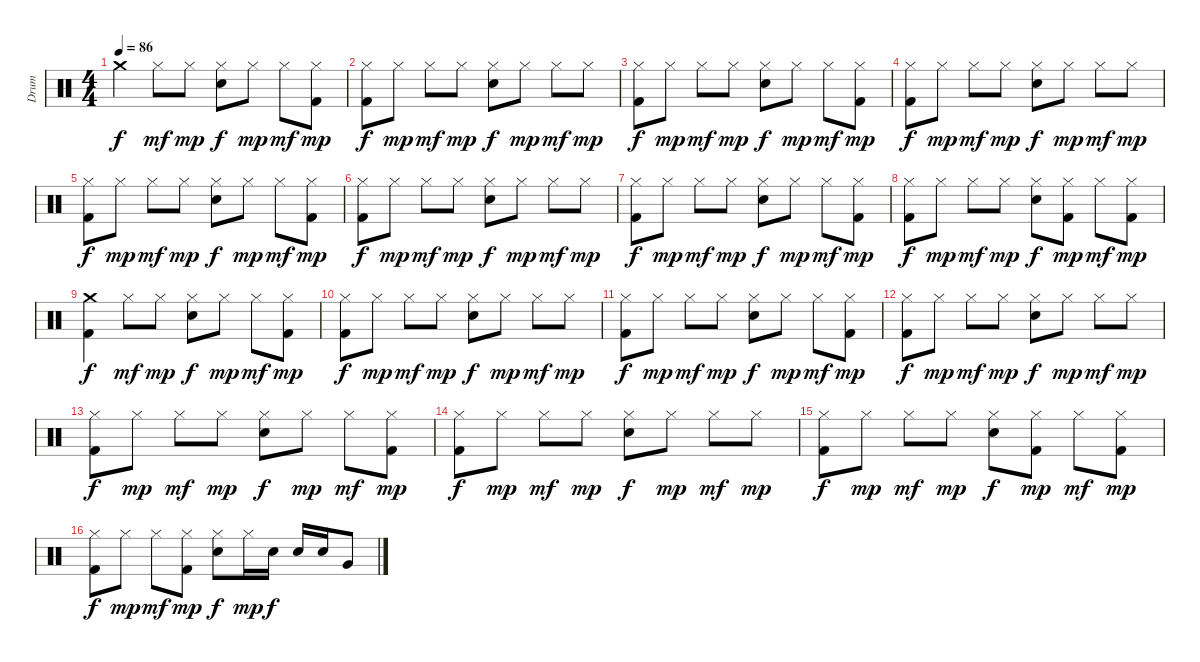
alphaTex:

\track ("Drum" "Drum") {instrument percussion}
\staff {score}
\articulation defaults
\ts (4 4)
\tempo 86
\clef neutral
\ks c "Crash medium (hit)".4{dy f} "Hi-Hat (closed)".8{dy mf} "Hi-Hat (closed)".8{dy mp}
("Hi-Hat (closed)" "Electric Snare (hit)").8{dy f} "Hi-Hat (closed)".8{dy mp} "Hi-Hat (closed)".8{dy mf} ("Hi-Hat (closed)" "Kick (hit) 2").8{dy mp} |
("Hi-Hat (closed)" "Kick (hit) 2").8{dy f} "Hi-Hat (closed)".8{dy mp} "Hi-Hat (closed)".8{dy mf} "Hi-Hat (closed)".8{dy mp} ("Hi-Hat (closed)" "Electric Snare (hit)").8{dy f} "Hi-Hat (closed)".8{dy mp} "Hi-Hat (closed)".8{dy mf} "Hi-Hat (closed)".8{dy mp} |
("Hi-Hat (closed)" "Kick (hit) 2").8{dy f} "Hi-Hat (closed)".8{dy mp} "Hi-Hat (closed)".8{dy mf} "Hi-Hat (closed)".8{dy mp} ("Hi-Hat (closed)" "Electric Snare (hit)").8{dy f} "Hi-Hat (closed)".8{dy mp} "Hi-Hat (closed)".8{dy mf} ("Hi-Hat (closed)" "Kick (hit) 2").8{dy mp} |
("Hi-Hat (closed)" "Kick (hit) 2").8{dy f} "Hi-Hat (closed)".8{dy mp} "Hi-Hat (closed)".8{dy mf} "Hi-Hat (closed)".8{dy mp} ("Hi-Hat (closed)" "Electric Snare (hit)").8{dy f} "Hi-Hat (closed)".8{dy mp} "Hi-Hat (closed)".8{dy mf} "Hi-Hat (closed)".8{dy mp} |
("Hi-Hat (closed)" "Kick (hit) 2").8{dy f} "Hi-Hat (closed)".8{dy mp} "Hi-Hat (closed)".8{dy mf} "Hi-Hat (closed)".8{dy mp} ("Hi-Hat (closed)" "Electric Snare (hit)").8{dy f} "Hi-Hat (closed)".8{dy mp} "Hi-Hat (closed)".8{dy mf} ("Hi-Hat (closed)" "Kick (hit) 2").8{dy mp} |
("Hi-Hat (closed)" "Kick (hit) 2").8{dy f} "Hi-Hat (closed)".8{dy mp} "Hi-Hat (closed)".8{dy mf} "Hi-Hat (closed)".8{dy mp} ("Hi-Hat (closed)" "Electric Snare (hit)").8{dy f} "Hi-Hat (closed)".8{dy mp} "Hi-Hat (closed)".8{dy mf} "Hi-Hat (closed)".8{dy mp} |
("Hi-Hat (closed)" "Kick (hit) 2").8{dy f} "Hi-Hat (closed)".8{dy mp} "Hi-Hat (closed)".8{dy mf} "Hi-Hat (closed)".8{dy mp} ("Hi-Hat (closed)" "Electric Snare (hit)").8{dy f} "Hi-Hat (closed)".8{dy mp} "Hi-Hat (closed)".8{dy mf} ("Hi-Hat (closed)" "Kick (hit) 2").8{dy mp} |
("Hi-Hat (closed)" "Kick (hit) 2").8{dy f} "Hi-Hat (closed)".8{dy mp} "Hi-Hat (closed)".8{dy mf} "Hi-Hat (closed)".8{dy mp} ("Hi-Hat (closed)" "Electric Snare (hit)").8{dy f} ("Hi-Hat (closed)" "Kick (hit) 2").8{dy mp} "Hi-Hat (closed)".8{dy mf} ("Hi-Hat (closed)" "Kick (hit) 2").8{dy mp} |
("Crash medium (hit)" "Kick (hit) 2").4{dy f} "Hi-Hat (closed)".8{dy mf} "Hi-Hat (closed)".8{dy mp} ("Hi-Hat (closed)" "Electric Snare (hit)").8{dy f} "Hi-Hat (closed)".8{dy mp} "Hi-Hat (closed)".8{dy mf} ("Hi-Hat (closed)" "Kick (hit) 2").8{dy mp} |
("Hi-Hat (closed)" "Kick (hit) 2").8{dy f} "Hi-Hat (closed)".8{dy mp} "Hi-Hat (closed)".8{dy mf} "Hi-Hat (closed)".8{dy mp} ("Hi-Hat (closed)" "Electric Snare (hit)").8{dy f} "Hi-Hat (closed)".8{dy mp} "Hi-Hat (closed)".8{dy mf} "Hi-Hat (closed)".8{dy mp} |
("Hi-Hat (closed)" "Kick (hit) 2").8{dy f} "Hi-Hat (closed)".8{dy mp} "Hi-Hat (closed)".8{dy mf} "Hi-Hat (closed)".8{dy mp} ("Hi-Hat (closed)" "Electric Snare (hit)").8{dy f} "Hi-Hat (closed)".8{dy mp} "Hi-Hat (closed)".8{dy mf} ("Hi-Hat (closed)" "Kick (hit) 2").8{dy mp} |
("Hi-Hat (closed)" "Kick (hit) 2").8{dy f} "Hi-Hat (closed)".8{dy mp} "Hi-Hat (closed)".8{dy mf} "Hi-Hat (closed)".8{dy mp} ("Hi-Hat (closed)" "Electric Snare (hit)").8{dy f} "Hi-Hat (closed)".8{dy mp} "Hi-Hat (closed)".8{dy mf} "Hi-Hat (closed)".8{dy mp} |
("Hi-Hat (closed)" "Kick (hit) 2").8{dy f} "Hi-Hat (closed)".8{dy mp} "Hi-Hat (closed)".8{dy mf} "Hi-Hat (closed)".8{dy mp} ("Hi-Hat (closed)" "Electric Snare (hit)").8{dy f} "Hi-Hat (closed)".8{dy mp} "Hi-Hat (closed)".8{dy mf} ("Hi-Hat (closed)" "Kick (hit) 2").8{dy mp} |
("Hi-Hat (closed)" "Kick (hit) 2").8{dy f} "Hi-Hat (closed)".8{dy mp} "Hi-Hat (closed)".8{dy mf} "Hi-Hat (closed)".8{dy mp} ("Hi-Hat (closed)" "Electric Snare (hit)").8{dy f} "Hi-Hat (closed)".8{dy mp} "Hi-Hat (closed)".8{dy mf} "Hi-Hat (closed)".8{dy mp} |
("Hi-Hat (closed)" "Kick (hit) 2").8{dy f} "Hi-Hat (closed)".8{dy mp} "Hi-Hat (closed)".8{dy mf} "Hi-Hat (closed)".8{dy mp} ("Hi-Hat (closed)" "Electric Snare (hit)").8{dy f} ("Hi-Hat (closed)" "Kick (hit) 2").8{dy mp} "Hi-Hat (closed)".8{dy mf} ("Hi-Hat (closed)" "Kick (hit) 2").8{dy mp} |
("Hi-Hat (closed)" "Kick (hit) 2").8{dy f} "Hi-Hat (closed)".8{dy mp} "Hi-Hat (closed)".8{dy mf} ("Hi-Hat (closed)" "Kick (hit) 2").8{dy mp} ("Hi-Hat (closed)" "Electric Snare (hit)").8{dy f} "Hi-Hat (closed)".16{dy mp} "Electric Snare (hit)".16{dy f} "Electric Snare (hit)".16 "Electric Snare (hit)".16 "Very Low Tom (hit)".8
